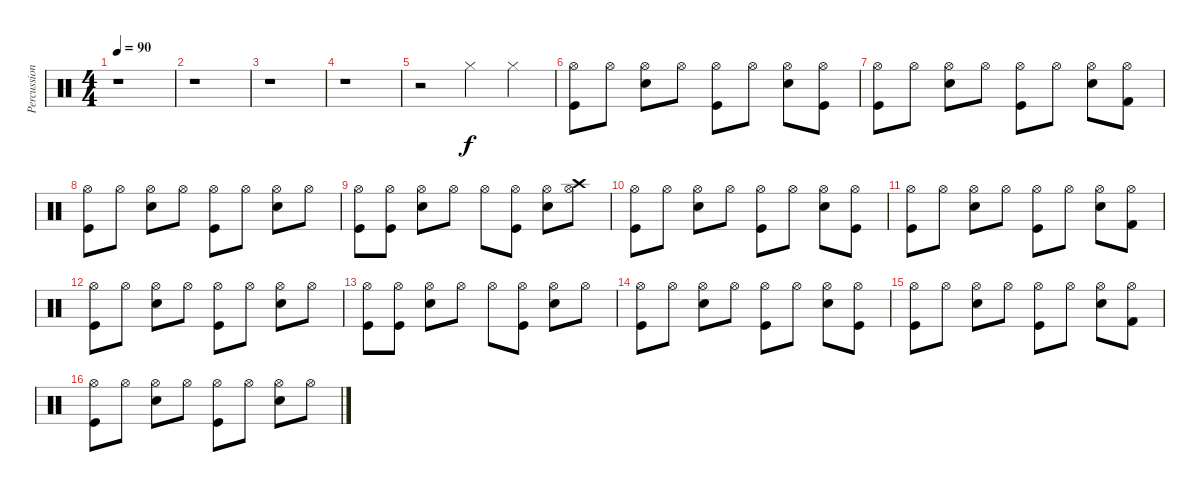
\track ("Percussion" "Percussion") {instrument percussion}
\staff {score}
\articulation defaults
\ts (4 4)
\tempo 90
\clef neutral
\ks c
r.1{dy f} |
r.1 |
r.1 |
r.1 |
r.2 "Hi-Hat (closed)".4 "Hi-Hat (closed)".4 |
("Hi-Hat (open)" "Kick (hit)").8 "Hi-Hat (open)".8 ("Hi-Hat (open)" "Electric Snare (hit)").8 "Hi-Hat (open)".8 ("Hi-Hat (open)" "Kick (hit)").8 "Hi-Hat (open)".8 ("Hi-Hat (open)" "Electric Snare (hit)").8 ("Hi-Hat (open)" "Kick (hit)").8 |
("Hi-Hat (open)" "Kick (hit)").8 "Hi-Hat (open)".8 ("Hi-Hat (open)" "Electric Snare (hit)").8 "Hi-Hat (open)".8 ("Hi-Hat (open)" "Kick (hit)").8 "Hi-Hat (open)".8 ("Hi-Hat (open)" "Electric Snare (hit)").8 ("Hi-Hat (open)" "Kick (hit) 2").8 |
("Hi-Hat (open)" "Kick (hit)").8 "Hi-Hat (open)".8 ("Hi-Hat (open)" "Electric Snare (hit)").8 "Hi-Hat (open)".8 ("Hi-Hat (open)" "Kick (hit)").8 "Hi-Hat (open)".8 ("Hi-Hat (open)" "Electric Snare (hit)").8 "Hi-Hat (open)".8 |
("Hi-Hat (open)" "Kick (hit)").8 ("Hi-Hat (open)" "Kick (hit)").8 ("Hi-Hat (open)" "Electric Snare (hit)").8 "Hi-Hat (open)".8 "Hi-Hat (open)".8 ("Hi-Hat (open)" "Kick (hit)").8 ("Hi-Hat (open)" "Electric Snare (hit)").8 ("Crash high (hit)" "Hi-Hat (open)").8 |
("Hi-Hat (open)" "Kick (hit)").8 "Hi-Hat (open)".8 ("Hi-Hat (open)" "Electric Snare (hit)").8 "Hi-Hat (open)".8 ("Hi-Hat (open)" "Kick (hit)").8 "Hi-Hat (open)".8 ("Hi-Hat (open)" "Electric Snare (hit)").8 ("Hi-Hat (open)" "Kick (hit)").8 |
("Hi-Hat (open)" "Kick (hit)").8 "Hi-Hat (open)".8 ("Hi-Hat (open)" "Electric Snare (hit)").8 "Hi-Hat (open)".8 ("Hi-Hat (open)" "Kick (hit)").8 "Hi-Hat (open)".8 ("Hi-Hat (open)" "Electric Snare (hit)").8 ("Hi-Hat (open)" "Kick (hit) 2").8 |
("Hi-Hat (open)" "Kick (hit)").8 "Hi-Hat (open)".8 ("Hi-Hat (open)" "Electric Snare (hit)").8 "Hi-Hat (open)".8 ("Hi-Hat (open)" "Kick (hit)").8 "Hi-Hat (open)".8 ("Hi-Hat (open)" "Electric Snare (hit)").8 "Hi-Hat (open)".8 |
("Hi-Hat (open)" "Kick (hit)").8 ("Hi-Hat (open)" "Kick (hit)").8 ("Hi-Hat (open)" "Electric Snare (hit)").8 "Hi-Hat (open)".8 "Hi-Hat (open)".8 ("Hi-Hat (open)" "Kick (hit)").8 ("Hi-Hat (open)" "Electric Snare (hit)").8 "Hi-Hat (open)".8 |
("Hi-Hat (open)" "Kick (hit)").8 "Hi-Hat (open)".8 ("Hi-Hat (open)" "Electric Snare (hit)").8 "Hi-Hat (open)".8 ("Hi-Hat (open)" "Kick (hit)").8 "Hi-Hat (open)".8 ("Hi-Hat (open)" "Electric Snare (hit)").8 ("Hi-Hat (open)" "Kick (hit)").8 |
("Hi-Hat (open)" "Kick (hit)").8 "Hi-Hat (open)".8 ("Hi-Hat (open)" "Electric Snare (hit)").8 "Hi-Hat (open)".8 ("Hi-Hat (open)" "Kick (hit)").8 "Hi-Hat (open)".8 ("Hi-Hat (open)" "Electric Snare (hit)").8 ("Hi-Hat (open)" "Kick (hit) 2").8 |
("Hi-Hat (open)" "Kick (hit)").8 "Hi-Hat (open)".8 ("Hi-Hat (open)" "Electric Snare (hit)").8 "Hi-Hat (open)".8 ("Hi-Hat (open)" "Kick (hit)").8 "Hi-Hat (open)".8 ("Hi-Hat (open)" "Electric Snare (hit)").8 "Hi-Hat (open)".8
